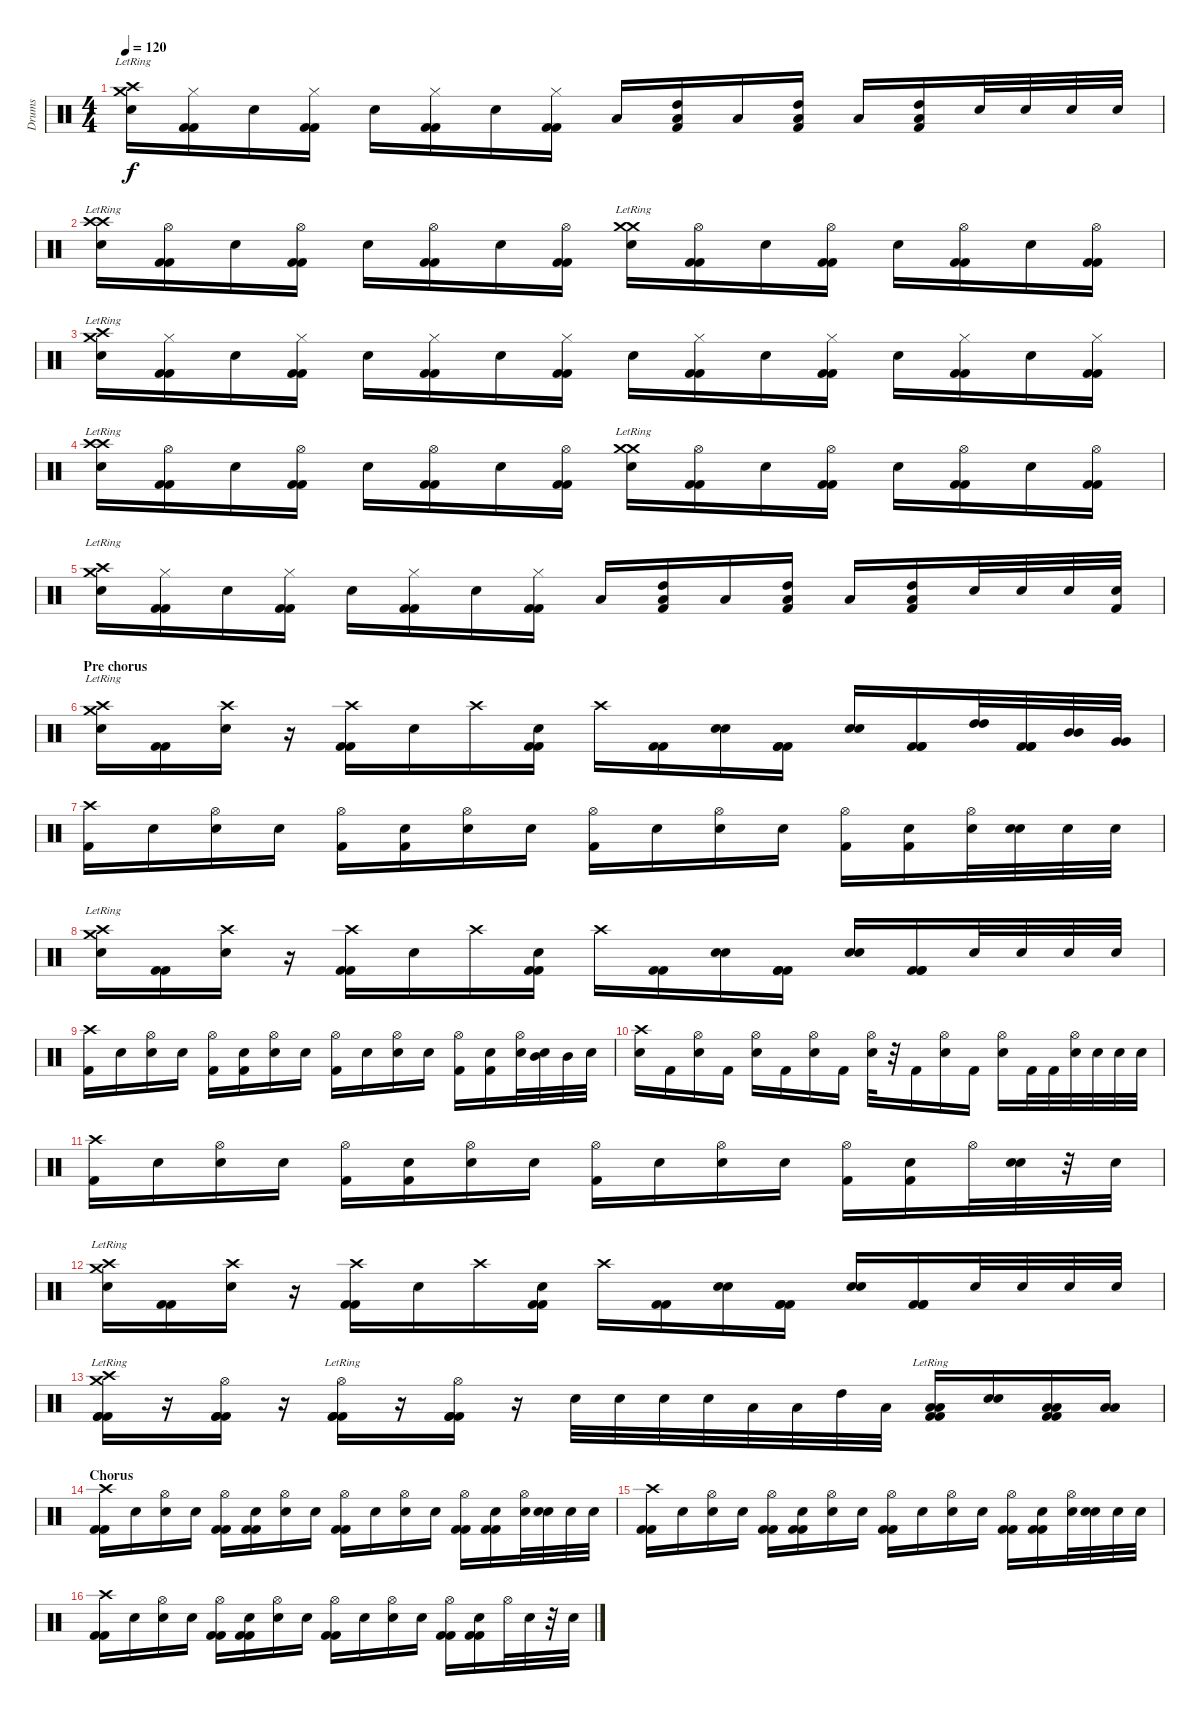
\track ("Drums" "Drums") {instrument percussion}
\staff {score}
\articulation defaults
\ts (4 4)
\tempo 120
\clef neutral
\ks c
("Crash medium (hit)"{lr} "Crash high (hit)"{lr} "Electric Snare (hit)").16{dy f} ("Hi-Hat (closed)" "Kick (hit) 2" "Kick (hit) 2").16 "Electric Snare (hit)".16 ("Hi-Hat (closed)" "Kick (hit) 2" "Kick (hit) 2").16 "Electric Snare (hit)".16 ("Hi-Hat (closed)" "Kick (hit) 2" "Kick (hit) 2").16 "Electric Snare (hit)".16 ("Hi-Hat (closed)" "Kick (hit) 2" "Kick (hit) 2").16 "Low Tom (hit)".16 ("Low Tom (hit)" "High Tom (hit)" "Kick (hit) 2").16 "Low Floor Tom (hit)".16 ("Low Floor Tom (hit)" "High Tom (hit)" "Kick (hit) 2").16 "Low Tom (hit)".16 ("Low Floor Tom (hit)" "High Tom (hit)" "Kick (hit) 2").16 "Electric Snare (hit)".32 "Electric Snare (hit)".32 "Electric Snare (hit)".32 "Electric Snare (hit)".32 |
("Crash high (hit)"{lr} "Crash high (hit)"{lr} "Electric Snare (hit)").16 ("Hi-Hat (open)" "Kick (hit) 2" "Kick (hit) 2").16 "Electric Snare (hit)".16 ("Hi-Hat (open)" "Kick (hit) 2" "Kick (hit) 2").16 "Electric Snare (hit)".16 ("Hi-Hat (open)" "Kick (hit) 2" "Kick (hit) 2").16 "Electric Snare (hit)".16 ("Hi-Hat (open)" "Kick (hit) 2" "Kick (hit) 2").16 ("Crash medium (hit)"{lr} "Crash medium (hit)"{lr} "Electric Snare (hit)").16 ("Hi-Hat (open)" "Kick (hit) 2" "Kick (hit) 2").16 "Electric Snare (hit)".16 ("Hi-Hat (open)" "Kick (hit) 2" "Kick (hit) 2").16 "Electric Snare (hit)".16 ("Hi-Hat (open)" "Kick (hit) 2" "Kick (hit) 2").16 "Electric Snare (hit)".16 ("Hi-Hat (open)" "Kick (hit) 2" "Kick (hit) 2").16 |
("Crash medium (hit)"{lr} "Crash high (hit)"{lr} "Electric Snare (hit)").16 ("Hi-Hat (closed)" "Kick (hit) 2" "Kick (hit) 2").16 "Electric Snare (hit)".16 ("Hi-Hat (closed)" "Kick (hit) 2" "Kick (hit) 2").16 "Electric Snare (hit)".16 ("Hi-Hat (closed)" "Kick (hit) 2" "Kick (hit) 2").16 "Electric Snare (hit)".16 ("Hi-Hat (closed)" "Kick (hit) 2" "Kick (hit) 2").16 "Electric Snare (hit)".16 ("Hi-Hat (closed)" "Kick (hit) 2" "Kick (hit) 2").16 "Electric Snare (hit)".16 ("Hi-Hat (closed)" "Kick (hit) 2" "Kick (hit) 2").16 "Electric Snare (hit)".16 ("Hi-Hat (closed)" "Kick (hit) 2" "Kick (hit) 2").16 "Electric Snare (hit)".16 ("Hi-Hat (closed)" "Kick (hit) 2" "Kick (hit) 2").16 |
("Crash high (hit)"{lr} "Crash high (hit)"{lr} "Electric Snare (hit)").16 ("Hi-Hat (open)" "Kick (hit) 2" "Kick (hit) 2").16 "Electric Snare (hit)".16 ("Hi-Hat (open)" "Kick (hit) 2" "Kick (hit) 2").16 "Electric Snare (hit)".16 ("Hi-Hat (open)" "Kick (hit) 2" "Kick (hit) 2").16 "Electric Snare (hit)".16 ("Hi-Hat (open)" "Kick (hit) 2" "Kick (hit) 2").16 ("Crash medium (hit)"{lr} "Crash medium (hit)"{lr} "Electric Snare (hit)").16 ("Hi-Hat (open)" "Kick (hit) 2" "Kick (hit) 2").16 "Electric Snare (hit)".16 ("Hi-Hat (open)" "Kick (hit) 2" "Kick (hit) 2").16 "Electric Snare (hit)".16 ("Hi-Hat (open)" "Kick (hit) 2" "Kick (hit) 2").16 "Electric Snare (hit)".16 ("Hi-Hat (open)" "Kick (hit) 2" "Kick (hit) 2").16 |
("Crash medium (hit)"{lr} "Crash high (hit)"{lr} "Electric Snare (hit)").16 ("Hi-Hat (closed)" "Kick (hit) 2" "Kick (hit) 2").16 "Electric Snare (hit)".16 ("Hi-Hat (closed)" "Kick (hit) 2" "Kick (hit) 2").16 "Electric Snare (hit)".16 ("Hi-Hat (closed)" "Kick (hit) 2" "Kick (hit) 2").16 "Electric Snare (hit)".16 ("Hi-Hat (closed)" "Kick (hit) 2" "Kick (hit) 2").16 "Low Tom (hit)".16 ("Low Tom (hit)" "High Tom (hit)" "Kick (hit) 2").16 "Low Floor Tom (hit)".16 ("Low Floor Tom (hit)" "High Tom (hit)" "Kick (hit) 2").16 "Low Tom (hit)".16 ("Low Floor Tom (hit)" "High Tom (hit)" "Kick (hit) 2").16 "Electric Snare (hit)".32 "Electric Snare (hit)".32 "Electric Snare (hit)".32 ("Kick (hit) 2" "Electric Snare (hit)").32 |
\section ("" "Pre chorus")
("Crash medium (hit)"{lr} "Crash high (hit)"{lr} "Electric Snare (hit)").16 ("Kick (hit) 2" "Kick (hit) 2").16 ("Crash high (hit)" "Electric Snare (hit)").16 r.16 ("Crash high (hit)" "Kick (hit) 2" "Kick (hit) 2").16 "Electric Snare (hit)".16 "Crash high (hit)".16 ("Electric Snare (hit)" "Kick (hit) 2" "Kick (hit) 2").16 "Crash high (hit)".16 ("Kick (hit) 2" "Kick (hit) 2").16 ("Electric Snare (hit)" "Electric Snare (hit)").16 ("Kick (hit) 2" "Kick (hit) 2" "Kick (hit) 2").16 ("Electric Snare (hit)" "Electric Snare (hit)").16 ("Kick (hit) 2" "Kick (hit) 2" "Kick (hit) 2").16 ("High Tom (hit)" "High Tom (hit)").32 ("Kick (hit) 2" "Kick (hit) 2" "Kick (hit) 2").32 ("Mid Tom (hit)" "Mid Tom (hit)").32 ("Very Low Tom (hit)" "Very Low Tom (hit)").32 |
("Crash high (hit)" "Kick (hit) 2").16 "Snare (hit)".16 ("Hi-Hat (open)" "Electric Snare (hit)").16 "Snare (hit)".16 ("Hi-Hat (open)" "Kick (hit) 2").16 ("Snare (hit)" "Kick (hit) 2").16 ("Hi-Hat (open)" "Electric Snare (hit)").16 "Snare (hit)".16 ("Hi-Hat (open)" "Kick (hit) 2").16 "Snare (hit)".16 ("Hi-Hat (open)" "Electric Snare (hit)").16 "Snare (hit)".16 ("Hi-Hat (open)" "Kick (hit) 2").16 ("Snare (hit)" "Kick (hit) 2").16 ("Hi-Hat (open)" "Electric Snare (hit)").32 ("Snare (hit)" "Electric Snare (hit)").32 "Electric Snare (hit)".32 "Electric Snare (hit)".32 |
("Crash medium (hit)"{lr} "Crash high (hit)"{lr} "Electric Snare (hit)").16 ("Kick (hit) 2" "Kick (hit) 2").16 ("Crash high (hit)" "Electric Snare (hit)").16 r.16 ("Crash high (hit)" "Kick (hit) 2" "Kick (hit) 2").16 "Electric Snare (hit)".16 "Crash high (hit)".16 ("Electric Snare (hit)" "Kick (hit) 2" "Kick (hit) 2").16 "Crash high (hit)".16 ("Kick (hit) 2" "Kick (hit) 2").16 ("Electric Snare (hit)" "Electric Snare (hit)").16 ("Kick (hit) 2" "Kick (hit) 2" "Kick (hit) 2").16 ("Electric Snare (hit)" "Electric Snare (hit)").16 ("Kick (hit) 2" "Kick (hit) 2" "Kick (hit) 2").16 "Electric Snare (hit)".32 "Electric Snare (hit)".32 "Electric Snare (hit)".32 "Electric Snare (hit)".32 |
("Crash high (hit)" "Kick (hit) 2").16 "Snare (hit)".16 ("Hi-Hat (open)" "Electric Snare (hit)").16 "Snare (hit)".16 ("Hi-Hat (open)" "Kick (hit) 2").16 ("Snare (hit)" "Kick (hit) 2").16 ("Hi-Hat (open)" "Electric Snare (hit)").16 "Snare (hit)".16 ("Hi-Hat (open)" "Kick (hit) 2").16 "Snare (hit)".16 ("Hi-Hat (open)" "Electric Snare (hit)").16 "Snare (hit)".16 ("Hi-Hat (open)" "Kick (hit) 2").16 ("Snare (hit)" "Kick (hit) 2").16 ("Hi-Hat (open)" "Electric Snare (hit)").32 ("Snare (hit)" "Mid Tom (hit)").32 "Mid Tom (hit)".32 "Electric Snare (hit)".32 |
("Crash high (hit)" "Electric Snare (hit)").16 "Kick (hit) 2".16 ("Hi-Hat (open)" "Electric Snare (hit)").16 "Kick (hit) 2".16 ("Hi-Hat (open)" "Electric Snare (hit)").16 "Kick (hit) 2".16 ("Hi-Hat (open)" "Electric Snare (hit)").16 "Kick (hit) 2".16 ("Hi-Hat (open)" "Electric Snare (hit)").32 r.32 "Kick (hit) 2".16 ("Hi-Hat (open)" "Electric Snare (hit)").16 "Kick (hit) 2".16 ("Hi-Hat (open)" "Electric Snare (hit)").16 "Kick (hit) 2".32 "Kick (hit) 2".32 ("Hi-Hat (open)" "Electric Snare (hit)").32 "Electric Snare (hit)".32 "Electric Snare (hit)".32 "Electric Snare (hit)".32 |
("Crash high (hit)" "Kick (hit) 2").16 "Snare (hit)".16 ("Hi-Hat (open)" "Electric Snare (hit)").16 "Snare (hit)".16 ("Hi-Hat (open)" "Kick (hit) 2").16 ("Snare (hit)" "Kick (hit) 2").16 ("Hi-Hat (open)" "Electric Snare (hit)").16 "Snare (hit)".16 ("Hi-Hat (open)" "Kick (hit) 2").16 "Snare (hit)".16 ("Hi-Hat (open)" "Electric Snare (hit)").16 "Snare (hit)".16 ("Hi-Hat (open)" "Kick (hit) 2").16 ("Snare (hit)" "Kick (hit) 2").16 "Hi-Hat (open)".32 ("Snare (hit)" "Electric Snare (hit)").32 r.32 "Electric Snare (hit)".32 |
("Crash medium (hit)"{lr} "Crash high (hit)"{lr} "Electric Snare (hit)").16 ("Kick (hit) 2" "Kick (hit) 2").16 ("Crash high (hit)" "Electric Snare (hit)").16 r.16 ("Crash high (hit)" "Kick (hit) 2" "Kick (hit) 2").16 "Electric Snare (hit)".16 "Crash high (hit)".16 ("Electric Snare (hit)" "Kick (hit) 2" "Kick (hit) 2").16 "Crash high (hit)".16 ("Kick (hit) 2" "Kick (hit) 2").16 ("Electric Snare (hit)" "Electric Snare (hit)").16 ("Kick (hit) 2" "Kick (hit) 2" "Kick (hit) 2").16 ("Electric Snare (hit)" "Electric Snare (hit)").16 ("Kick (hit) 2" "Kick (hit) 2" "Kick (hit) 2").16 "Electric Snare (hit)".32 "Electric Snare (hit)".32 "Electric Snare (hit)".32 "Electric Snare (hit)".32 |
("Crash high (hit)"{lr} "Crash medium (hit)"{lr} "Kick (hit) 2" "Kick (hit) 2" "Kick (hit) 2").16 r.16 ("Hi-Hat (open)" "Kick (hit) 2" "Kick (hit) 2" "Kick (hit) 2").16 r.16 ("Hi-Hat (open)"{lr} "Kick (hit) 2" "Kick (hit) 2" "Kick (hit) 2").16 r.16 ("Hi-Hat (open)" "Kick (hit) 2" "Kick (hit) 2" "Kick (hit) 2").16 r.16 "Electric Snare (hit)".32 "Electric Snare (hit)".32 "Electric Snare (hit)".32 "Electric Snare (hit)".32 "Low Floor Tom (hit)".32 "Low Tom (hit)".32 "High Tom (hit)".32 "Low Tom (hit)".32 ("Low Floor Tom (hit)" "Low Floor Tom (hit)"{lr} "Kick (hit) 2" "Kick (hit) 2").16 ("Electric Snare (hit)" "Electric Snare (hit)").16 ("Low Floor Tom (hit)" "Low Floor Tom (hit)" "Kick (hit) 2" "Kick (hit) 2").16 ("Low Tom (hit)" "Low Tom (hit)").16 |
\section ("" "Chorus")
("Crash high (hit)" "Kick (hit) 2" "Kick (hit) 2").16 "Snare (hit)".16 ("Hi-Hat (open)" "Electric Snare (hit)").16 "Snare (hit)".16 ("Hi-Hat (open)" "Kick (hit) 2" "Kick (hit) 2").16 ("Snare (hit)" "Kick (hit) 2" "Kick (hit) 2").16 ("Hi-Hat (open)" "Electric Snare (hit)").16 "Snare (hit)".16 ("Hi-Hat (open)" "Kick (hit) 2" "Kick (hit) 2").16 "Snare (hit)".16 ("Hi-Hat (open)" "Electric Snare (hit)").16 "Snare (hit)".16 ("Hi-Hat (open)" "Kick (hit) 2" "Kick (hit) 2").16 ("Snare (hit)" "Kick (hit) 2" "Kick (hit) 2").16 ("Hi-Hat (open)" "Electric Snare (hit)").32 ("Snare (hit)" "Electric Snare (hit)").32 "Electric Snare (hit)".32 "Electric Snare (hit)".32 |
("Crash high (hit)" "Kick (hit) 2" "Kick (hit) 2").16 "Snare (hit)".16 ("Hi-Hat (open)" "Electric Snare (hit)").16 "Snare (hit)".16 ("Hi-Hat (open)" "Kick (hit) 2" "Kick (hit) 2").16 ("Snare (hit)" "Kick (hit) 2" "Kick (hit) 2").16 ("Hi-Hat (open)" "Electric Snare (hit)").16 "Snare (hit)".16 ("Hi-Hat (open)" "Kick (hit) 2" "Kick (hit) 2").16 "Snare (hit)".16 ("Hi-Hat (open)" "Electric Snare (hit)").16 "Snare (hit)".16 ("Hi-Hat (open)" "Kick (hit) 2" "Kick (hit) 2").16 ("Snare (hit)" "Kick (hit) 2" "Kick (hit) 2").16 ("Hi-Hat (open)" "Electric Snare (hit)").32 ("Snare (hit)" "Electric Snare (hit)").32 "Electric Snare (hit)".32 "Electric Snare (hit)".32 |
("Crash high (hit)" "Kick (hit) 2" "Kick (hit) 2").16 "Snare (hit)".16 ("Hi-Hat (open)" "Electric Snare (hit)").16 "Snare (hit)".16 ("Hi-Hat (open)" "Kick (hit) 2" "Kick (hit) 2").16 ("Snare (hit)" "Kick (hit) 2" "Kick (hit) 2").16 ("Hi-Hat (open)" "Electric Snare (hit)").16 "Snare (hit)".16 ("Hi-Hat (open)" "Kick (hit) 2" "Kick (hit) 2").16 "Snare (hit)".16 ("Hi-Hat (open)" "Electric Snare (hit)").16 "Snare (hit)".16 ("Hi-Hat (open)" "Kick (hit) 2" "Kick (hit) 2").16 ("Snare (hit)" "Kick (hit) 2" "Kick (hit) 2").16 "Hi-Hat (open)".32 "Snare (hit)".32 r.32 "Electric Snare (hit)".32
